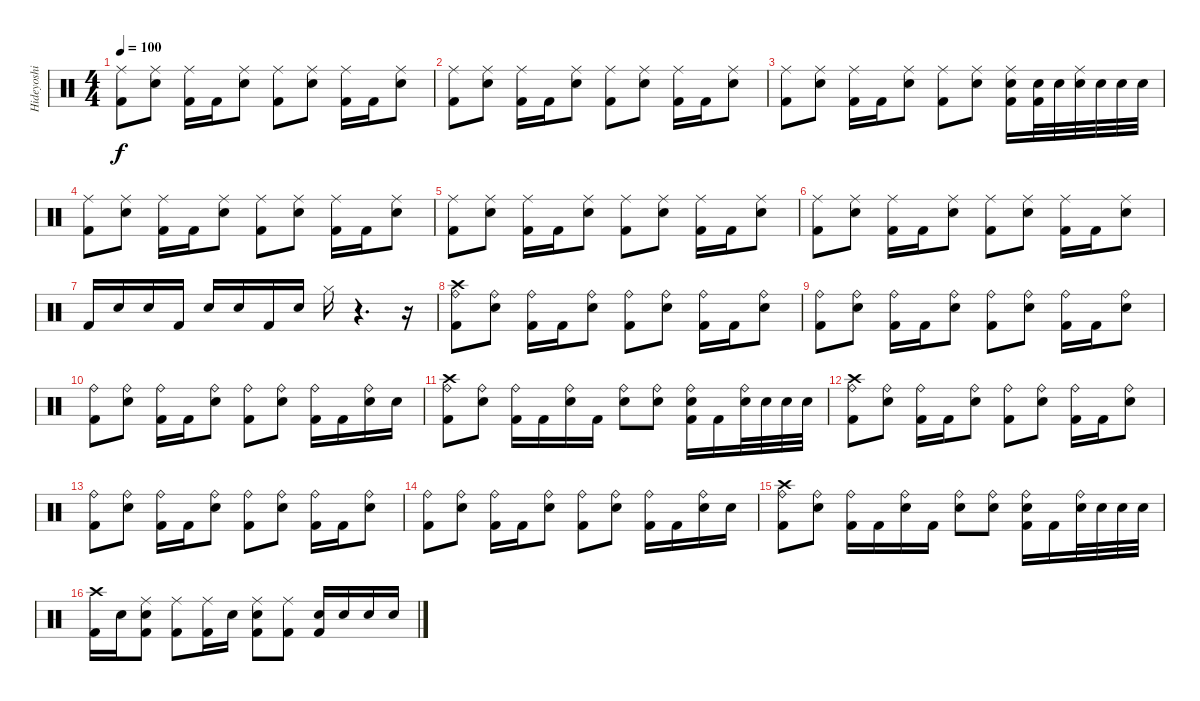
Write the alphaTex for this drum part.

\track ("Hideyoshi" "Hideyoshi") {instrument percussion}
\staff {score}
\articulation defaults
\ts (4 4)
\tempo 100
\clef neutral
\ks c
("Ride (middle)" "Kick (hit) 2").8{dy f} ("Snare (hit) 2" "Ride (middle)").8 ("Kick (hit) 2" "Ride (middle)").16 "Kick (hit) 2".16 ("Snare (hit) 2" "Ride (middle)").8 ("Ride (middle)" "Kick (hit) 2").8 ("Snare (hit) 2" "Ride (middle)").8 ("Kick (hit) 2" "Ride (middle)").16 "Kick (hit) 2".16 ("Snare (hit) 2" "Ride (middle)").8 |
("Kick (hit) 2" "Ride (middle)").8 ("Snare (hit) 2" "Ride (middle)").8 ("Kick (hit) 2" "Ride (middle)").16 "Kick (hit) 2".16 ("Ride (middle)" "Snare (hit) 2").8 ("Ride (middle)" "Kick (hit) 2").8 ("Snare (hit) 2" "Ride (middle)").8 ("Kick (hit) 2" "Ride (middle)").16 "Kick (hit) 2".16 ("Snare (hit) 2" "Ride (middle)").8 |
("Ride (middle)" "Kick (hit) 2").8 ("Snare (hit) 2" "Ride (middle)").8 ("Kick (hit) 2" "Ride (middle)").16 "Kick (hit) 2".16 ("Snare (hit) 2" "Ride (middle)").8 ("Kick (hit) 2" "Ride (middle)").8 ("Snare (hit) 2" "Ride (middle)").8 ("Ride (middle)" "Snare (hit) 2" "Kick (hit) 2").16 ("Snare (hit) 2" "Kick (hit) 2").32 "Snare (hit) 2".32 ("Ride (middle)" "Snare (hit) 2").32 "Snare (hit) 2".32 "Snare (hit) 2".32 "Snare (hit) 2".32 |
("Ride (middle)" "Kick (hit) 2").8 ("Snare (hit) 2" "Ride (middle)").8 ("Kick (hit) 2" "Ride (middle)").16 "Kick (hit) 2".16 ("Snare (hit) 2" "Ride (middle)").8 ("Kick (hit) 2" "Ride (middle)").8 ("Snare (hit) 2" "Ride (middle)").8 ("Kick (hit) 2" "Ride (middle)").16 "Kick (hit) 2".16 ("Snare (hit) 2" "Ride (middle)").8 |
("Kick (hit) 2" "Ride (middle)").8 ("Snare (hit) 2" "Ride (middle)").8 ("Kick (hit) 2" "Ride (middle)").16 "Kick (hit) 2".16 ("Ride (middle)" "Snare (hit) 2").8 ("Kick (hit) 2" "Ride (middle)").8 ("Snare (hit) 2" "Ride (middle)").8 ("Kick (hit) 2" "Ride (middle)").16 "Kick (hit) 2".16 ("Ride (middle)" "Snare (hit) 2").8 |
("Ride (middle)" "Kick (hit) 2").8 ("Snare (hit) 2" "Ride (middle)").8 ("Kick (hit) 2" "Ride (middle)").16 "Kick (hit) 2".16 ("Snare (hit) 2" "Ride (middle)").8 ("Kick (hit) 2" "Ride (middle)").8 ("Snare (hit) 2" "Ride (middle)").8 ("Kick (hit) 2" "Ride (middle)").16 "Kick (hit) 2".16 ("Snare (hit) 2" "Ride (middle)").8 |
"Kick (hit) 2".16 "Snare (hit) 2".16 "Snare (hit) 2".16 "Kick (hit) 2".16 "Snare (hit) 2".16 "Snare (hit) 2".16 "Kick (hit) 2".16 "Snare (hit) 2".16 "Hi-Hat (closed)".16 r.4{d} r.16 |
("Crash high (hit)" "Kick (hit) 2" "Ride (bell)").8 ("Snare (hit) 2" "Ride (bell)").8 ("Kick (hit) 2" "Ride (bell)").16 "Kick (hit) 2".16 ("Snare (hit) 2" "Ride (bell)").8 ("Kick (hit) 2" "Ride (bell)").8 ("Snare (hit) 2" "Ride (bell)").8 ("Kick (hit) 2" "Ride (bell)").16 "Kick (hit) 2".16 ("Snare (hit) 2" "Ride (bell)").8 |
("Kick (hit) 2" "Ride (bell)").8 ("Snare (hit) 2" "Ride (bell)").8 ("Kick (hit) 2" "Ride (bell)").16 "Kick (hit) 2".16 ("Snare (hit) 2" "Ride (bell)").8 ("Kick (hit) 2" "Ride (bell)").8 ("Snare (hit) 2" "Ride (bell)").8 ("Kick (hit) 2" "Ride (bell)").16 "Kick (hit) 2".16 ("Snare (hit) 2" "Ride (bell)").8 |
("Kick (hit) 2" "Ride (bell)").8 ("Snare (hit) 2" "Ride (bell)").8 ("Kick (hit) 2" "Ride (bell)").16 "Kick (hit) 2".16 ("Snare (hit) 2" "Ride (bell)").8 ("Kick (hit) 2" "Ride (bell)").8 ("Snare (hit) 2" "Ride (bell)").8 ("Kick (hit) 2" "Ride (bell)").16 "Kick (hit) 2".16 ("Snare (hit) 2" "Ride (bell)").16 "Snare (hit) 2".16 |
("Crash high (hit)" "Kick (hit) 2" "Ride (bell)").8 ("Snare (hit) 2" "Ride (bell)").8 ("Kick (hit) 2" "Ride (bell)").16 "Kick (hit) 2".16 ("Snare (hit) 2" "Ride (bell)").16 "Kick (hit) 2".16 ("Snare (hit) 2" "Ride (bell)").8 ("Snare (hit) 2" "Ride (bell)").8 ("Snare (hit) 2" "Kick (hit) 2" "Ride (bell)").16 "Kick (hit) 2".16 ("Snare (hit) 2" "Ride (bell)").32 "Snare (hit) 2".32 "Snare (hit) 2".32 "Snare (hit) 2".32 |
("Crash high (hit)" "Kick (hit) 2" "Ride (bell)").8 ("Snare (hit) 2" "Ride (bell)").8 ("Kick (hit) 2" "Ride (bell)").16 "Kick (hit) 2".16 ("Snare (hit) 2" "Ride (bell)").8 ("Kick (hit) 2" "Ride (bell)").8 ("Snare (hit) 2" "Ride (bell)").8 ("Kick (hit) 2" "Ride (bell)").16 "Kick (hit) 2".16 ("Snare (hit) 2" "Ride (bell)").8 |
("Kick (hit) 2" "Ride (bell)").8 ("Snare (hit) 2" "Ride (bell)").8 ("Kick (hit) 2" "Ride (bell)").16 "Kick (hit) 2".16 ("Snare (hit) 2" "Ride (bell)").8 ("Kick (hit) 2" "Ride (bell)").8 ("Snare (hit) 2" "Ride (bell)").8 ("Kick (hit) 2" "Ride (bell)").16 "Kick (hit) 2".16 ("Snare (hit) 2" "Ride (bell)").8 |
("Kick (hit) 2" "Ride (bell)").8 ("Snare (hit) 2" "Ride (bell)").8 ("Kick (hit) 2" "Ride (bell)").16 "Kick (hit) 2".16 ("Snare (hit) 2" "Ride (bell)").8 ("Kick (hit) 2" "Ride (bell)").8 ("Snare (hit) 2" "Ride (bell)").8 ("Kick (hit) 2" "Ride (bell)").16 "Kick (hit) 2".16 ("Snare (hit) 2" "Ride (bell)").16 "Snare (hit) 2".16 |
("Crash high (hit)" "Ride (bell)" "Kick (hit) 2").8 ("Snare (hit) 2" "Ride (bell)").8 ("Kick (hit) 2" "Ride (bell)").16 "Kick (hit) 2".16 ("Snare (hit) 2" "Ride (bell)").16 "Kick (hit) 2".16 ("Snare (hit) 2" "Ride (bell)").8 ("Snare (hit) 2" "Ride (bell)").8 ("Snare (hit) 2" "Kick (hit) 2" "Ride (bell)").16 "Kick (hit) 2".16 ("Snare (hit) 2" "Ride (bell)").32 "Snare (hit) 2".32 "Snare (hit) 2".32 "Snare (hit) 2".32 |
("Crash high (hit)" "Kick (hit) 2").16 "Snare (hit) 2".16 ("Snare (hit) 2" "Kick (hit) 2" "Ride (middle)").8 ("Kick (hit) 2" "Ride (middle)").8 ("Kick (hit) 2" "Ride (middle)").16 "Snare (hit) 2".16 ("Ride (middle)" "Snare (hit) 2" "Kick (hit) 2").8 ("Ride (middle)" "Kick (hit) 2").8 ("Kick (hit) 2" "Snare (hit) 2").16 "Snare (hit) 2".16 "Snare (hit) 2".16 "Snare (hit) 2".16
